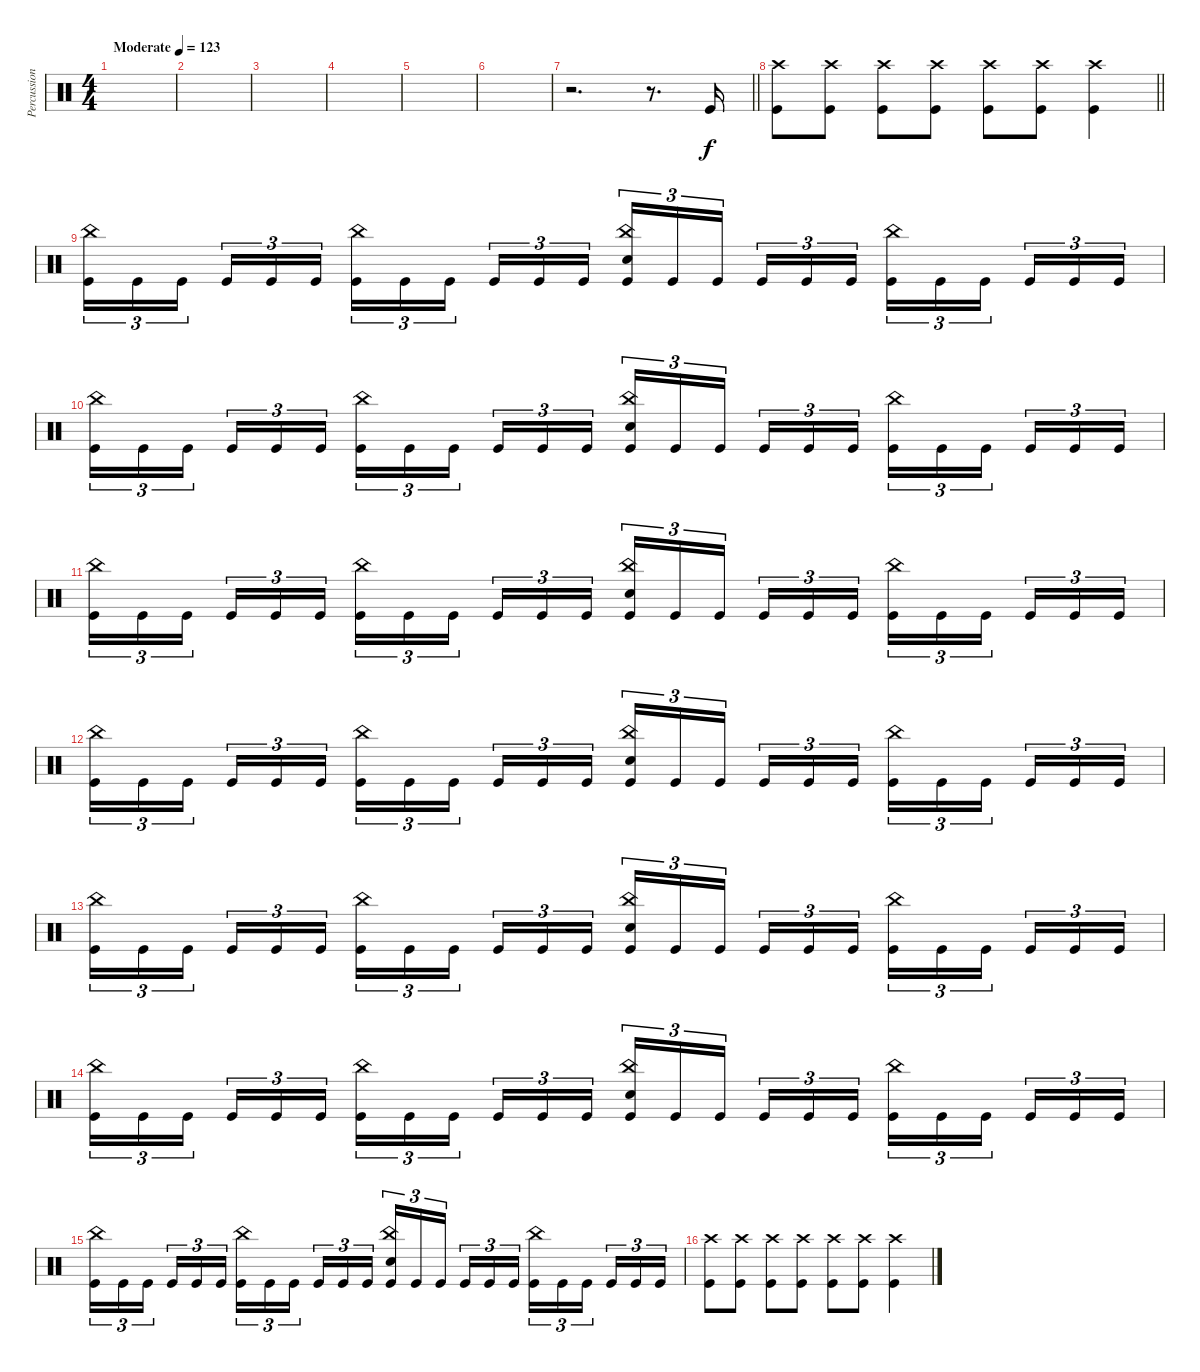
\track ("Percussions" "Percussion") {instrument percussion}
\staff {score}
\articulation defaults
\ts (4 4)
\tempo (123 "Moderate")
\clef neutral
\ks c
|
|
|
|
|
|
\barLineRight lightlight
r.2{d} r.8{d} "Kick (hit)".16 |
\section ("" "")
\barLineRight lightlight
("Crash high (hit)" "Kick (hit)").8 ("Crash high (hit)" "Kick (hit)").8 ("Crash high (hit)" "Kick (hit)").8 ("Crash high (hit)" "Kick (hit)").8 ("Crash high (hit)" "Kick (hit)").8 ("Crash high (hit)" "Kick (hit)").8 ("Crash high (hit)" "Kick (hit)").4 |
("China (hit)" "Kick (hit)").16{tu (3 2)} "Kick (hit)".16{tu (3 2)} "Kick (hit)".16{tu (3 2) beam splitsecondary} "Kick (hit)".16{tu (3 2)} "Kick (hit)".16{tu (3 2)} "Kick (hit)".16{tu (3 2)} ("China (hit)" "Kick (hit)").16{tu (3 2)} "Kick (hit)".16{tu (3 2)} "Kick (hit)".16{tu (3 2) beam splitsecondary} "Kick (hit)".16{tu (3 2)} "Kick (hit)".16{tu (3 2)} "Kick (hit)".16{tu (3 2)} ("China (hit)" "Electric Snare (hit)" "Kick (hit)").16{tu (3 2)} "Kick (hit)".16{tu (3 2)} "Kick (hit)".16{tu (3 2) beam splitsecondary} "Kick (hit)".16{tu (3 2)} "Kick (hit)".16{tu (3 2)} "Kick (hit)".16{tu (3 2)} ("China (hit)" "Kick (hit)").16{tu (3 2)} "Kick (hit)".16{tu (3 2)} "Kick (hit)".16{tu (3 2) beam splitsecondary} "Kick (hit)".16{tu (3 2)} "Kick (hit)".16{tu (3 2)} "Kick (hit)".16{tu (3 2)} |
("China (hit)" "Kick (hit)").16{tu (3 2)} "Kick (hit)".16{tu (3 2)} "Kick (hit)".16{tu (3 2) beam splitsecondary} "Kick (hit)".16{tu (3 2)} "Kick (hit)".16{tu (3 2)} "Kick (hit)".16{tu (3 2)} ("China (hit)" "Kick (hit)").16{tu (3 2)} "Kick (hit)".16{tu (3 2)} "Kick (hit)".16{tu (3 2) beam splitsecondary} "Kick (hit)".16{tu (3 2)} "Kick (hit)".16{tu (3 2)} "Kick (hit)".16{tu (3 2)} ("China (hit)" "Electric Snare (hit)" "Kick (hit)").16{tu (3 2)} "Kick (hit)".16{tu (3 2)} "Kick (hit)".16{tu (3 2) beam splitsecondary} "Kick (hit)".16{tu (3 2)} "Kick (hit)".16{tu (3 2)} "Kick (hit)".16{tu (3 2)} ("China (hit)" "Kick (hit)").16{tu (3 2)} "Kick (hit)".16{tu (3 2)} "Kick (hit)".16{tu (3 2) beam splitsecondary} "Kick (hit)".16{tu (3 2)} "Kick (hit)".16{tu (3 2)} "Kick (hit)".16{tu (3 2)} |
("China (hit)" "Kick (hit)").16{tu (3 2)} "Kick (hit)".16{tu (3 2)} "Kick (hit)".16{tu (3 2) beam splitsecondary} "Kick (hit)".16{tu (3 2)} "Kick (hit)".16{tu (3 2)} "Kick (hit)".16{tu (3 2)} ("China (hit)" "Kick (hit)").16{tu (3 2)} "Kick (hit)".16{tu (3 2)} "Kick (hit)".16{tu (3 2) beam splitsecondary} "Kick (hit)".16{tu (3 2)} "Kick (hit)".16{tu (3 2)} "Kick (hit)".16{tu (3 2)} ("China (hit)" "Electric Snare (hit)" "Kick (hit)").16{tu (3 2)} "Kick (hit)".16{tu (3 2)} "Kick (hit)".16{tu (3 2) beam splitsecondary} "Kick (hit)".16{tu (3 2)} "Kick (hit)".16{tu (3 2)} "Kick (hit)".16{tu (3 2)} ("China (hit)" "Kick (hit)").16{tu (3 2)} "Kick (hit)".16{tu (3 2)} "Kick (hit)".16{tu (3 2) beam splitsecondary} "Kick (hit)".16{tu (3 2)} "Kick (hit)".16{tu (3 2)} "Kick (hit)".16{tu (3 2)} |
("China (hit)" "Kick (hit)").16{tu (3 2)} "Kick (hit)".16{tu (3 2)} "Kick (hit)".16{tu (3 2) beam splitsecondary} "Kick (hit)".16{tu (3 2)} "Kick (hit)".16{tu (3 2)} "Kick (hit)".16{tu (3 2)} ("China (hit)" "Kick (hit)").16{tu (3 2)} "Kick (hit)".16{tu (3 2)} "Kick (hit)".16{tu (3 2) beam splitsecondary} "Kick (hit)".16{tu (3 2)} "Kick (hit)".16{tu (3 2)} "Kick (hit)".16{tu (3 2)} ("China (hit)" "Electric Snare (hit)" "Kick (hit)").16{tu (3 2)} "Kick (hit)".16{tu (3 2)} "Kick (hit)".16{tu (3 2) beam splitsecondary} "Kick (hit)".16{tu (3 2)} "Kick (hit)".16{tu (3 2)} "Kick (hit)".16{tu (3 2)} ("China (hit)" "Kick (hit)").16{tu (3 2)} "Kick (hit)".16{tu (3 2)} "Kick (hit)".16{tu (3 2) beam splitsecondary} "Kick (hit)".16{tu (3 2)} "Kick (hit)".16{tu (3 2)} "Kick (hit)".16{tu (3 2)} |
("China (hit)" "Kick (hit)").16{tu (3 2)} "Kick (hit)".16{tu (3 2)} "Kick (hit)".16{tu (3 2) beam splitsecondary} "Kick (hit)".16{tu (3 2)} "Kick (hit)".16{tu (3 2)} "Kick (hit)".16{tu (3 2)} ("China (hit)" "Kick (hit)").16{tu (3 2)} "Kick (hit)".16{tu (3 2)} "Kick (hit)".16{tu (3 2) beam splitsecondary} "Kick (hit)".16{tu (3 2)} "Kick (hit)".16{tu (3 2)} "Kick (hit)".16{tu (3 2)} ("China (hit)" "Electric Snare (hit)" "Kick (hit)").16{tu (3 2)} "Kick (hit)".16{tu (3 2)} "Kick (hit)".16{tu (3 2) beam splitsecondary} "Kick (hit)".16{tu (3 2)} "Kick (hit)".16{tu (3 2)} "Kick (hit)".16{tu (3 2)} ("China (hit)" "Kick (hit)").16{tu (3 2)} "Kick (hit)".16{tu (3 2)} "Kick (hit)".16{tu (3 2) beam splitsecondary} "Kick (hit)".16{tu (3 2)} "Kick (hit)".16{tu (3 2)} "Kick (hit)".16{tu (3 2)} |
("China (hit)" "Kick (hit)").16{tu (3 2)} "Kick (hit)".16{tu (3 2)} "Kick (hit)".16{tu (3 2) beam splitsecondary} "Kick (hit)".16{tu (3 2)} "Kick (hit)".16{tu (3 2)} "Kick (hit)".16{tu (3 2)} ("China (hit)" "Kick (hit)").16{tu (3 2)} "Kick (hit)".16{tu (3 2)} "Kick (hit)".16{tu (3 2) beam splitsecondary} "Kick (hit)".16{tu (3 2)} "Kick (hit)".16{tu (3 2)} "Kick (hit)".16{tu (3 2)} ("China (hit)" "Electric Snare (hit)" "Kick (hit)").16{tu (3 2)} "Kick (hit)".16{tu (3 2)} "Kick (hit)".16{tu (3 2) beam splitsecondary} "Kick (hit)".16{tu (3 2)} "Kick (hit)".16{tu (3 2)} "Kick (hit)".16{tu (3 2)} ("China (hit)" "Kick (hit)").16{tu (3 2)} "Kick (hit)".16{tu (3 2)} "Kick (hit)".16{tu (3 2) beam splitsecondary} "Kick (hit)".16{tu (3 2)} "Kick (hit)".16{tu (3 2)} "Kick (hit)".16{tu (3 2)} |
("China (hit)" "Kick (hit)").16{tu (3 2)} "Kick (hit)".16{tu (3 2)} "Kick (hit)".16{tu (3 2) beam splitsecondary} "Kick (hit)".16{tu (3 2)} "Kick (hit)".16{tu (3 2)} "Kick (hit)".16{tu (3 2)} ("China (hit)" "Kick (hit)").16{tu (3 2)} "Kick (hit)".16{tu (3 2)} "Kick (hit)".16{tu (3 2) beam splitsecondary} "Kick (hit)".16{tu (3 2)} "Kick (hit)".16{tu (3 2)} "Kick (hit)".16{tu (3 2)} ("China (hit)" "Electric Snare (hit)" "Kick (hit)").16{tu (3 2)} "Kick (hit)".16{tu (3 2)} "Kick (hit)".16{tu (3 2) beam splitsecondary} "Kick (hit)".16{tu (3 2)} "Kick (hit)".16{tu (3 2)} "Kick (hit)".16{tu (3 2)} ("China (hit)" "Kick (hit)").16{tu (3 2)} "Kick (hit)".16{tu (3 2)} "Kick (hit)".16{tu (3 2) beam splitsecondary} "Kick (hit)".16{tu (3 2)} "Kick (hit)".16{tu (3 2)} "Kick (hit)".16{tu (3 2)} |
("Crash high (hit)" "Kick (hit)").8 ("Crash high (hit)" "Kick (hit)").8 ("Crash high (hit)" "Kick (hit)").8 ("Crash high (hit)" "Kick (hit)").8 ("Crash high (hit)" "Kick (hit)").8 ("Crash high (hit)" "Kick (hit)").8 ("Crash high (hit)" "Kick (hit)").4
